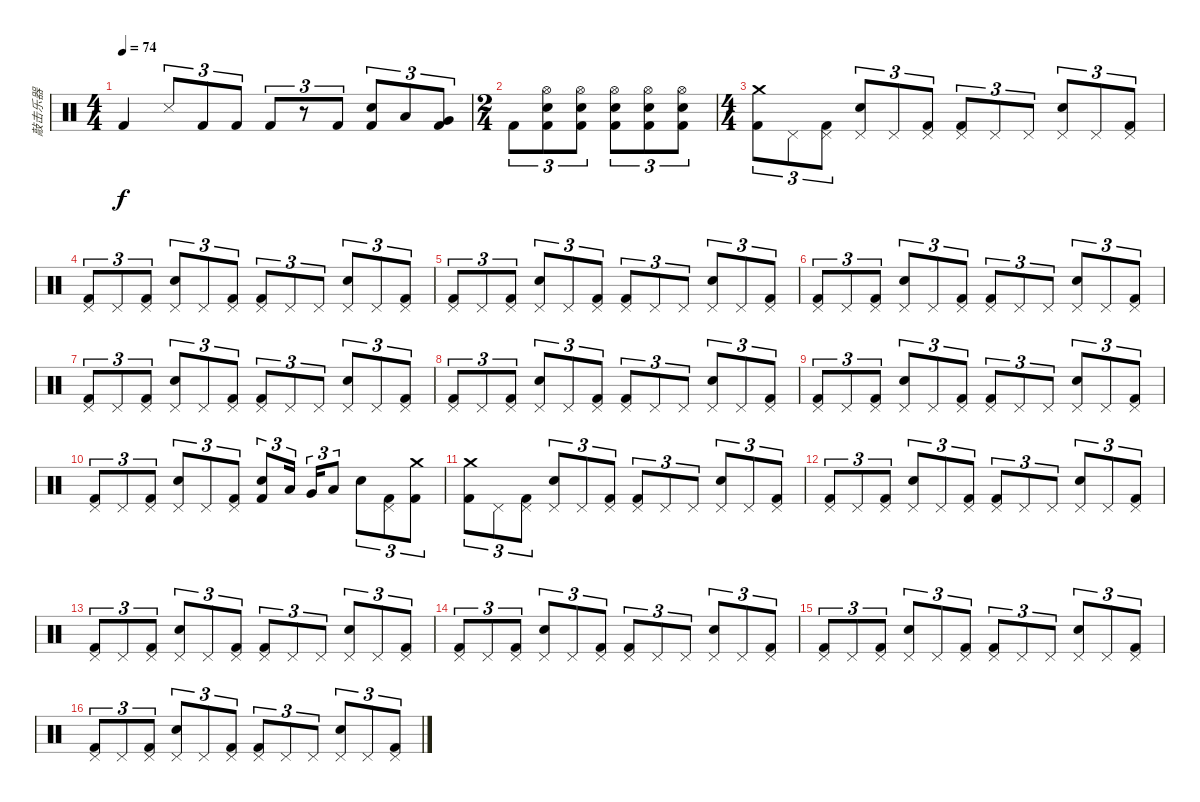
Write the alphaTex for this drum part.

\track ("敲击乐器" "敲击乐器") {instrument percussion}
\staff {score}
\articulation defaults
\ts (4 4)
\tempo 74
\clef neutral
\ks c "Kick (hit) 2".4{dy f} "Snare (side stick) 3".8{tu (3 2)} "Kick (hit) 2".8{tu (3 2)} "Kick (hit) 2".8{tu (3 2)} "Kick (hit) 2".8{tu (3 2)}
r.8{tu (3 2)} "Kick (hit) 2".8{tu (3 2)} ("Electric Snare (hit)" "Kick (hit) 2").8{tu (3 2)} "Low Tom (hit)".8{tu (3 2)} ("Very Low Tom (hit)" "Kick (hit) 2").8{tu (3 2)} |
\ts (2 4)
"Kick (hit) 2".8{tu (3 2)} ("Electric Snare (hit)" "Hi-Hat (open)" "Kick (hit) 2").8{tu (3 2)} ("Electric Snare (hit)" "Hi-Hat (open)" "Kick (hit) 2").8{tu (3 2)} ("Electric Snare (hit)" "Hi-Hat (open)" "Kick (hit) 2").8{tu (3 2)} ("Electric Snare (hit)" "Hi-Hat (open)" "Kick (hit) 2").8{tu (3 2)} ("Electric Snare (hit)" "Hi-Hat (open)" "Kick (hit) 2").8{tu (3 2)} |
\ts (4 4)
("Crash medium (hit)" "Kick (hit) 2").8{tu (3 2)} "Pedal Hi-Hat (hit)".8{tu (3 2)} ("Pedal Hi-Hat (hit)" "Kick (hit) 2").8{tu (3 2)} ("Electric Snare (hit)" "Pedal Hi-Hat (hit)").8{tu (3 2)} "Pedal Hi-Hat (hit)".8{tu (3 2)} ("Pedal Hi-Hat (hit)" "Kick (hit) 2").8{tu (3 2)} ("Pedal Hi-Hat (hit)" "Kick (hit) 2").8{tu (3 2)} "Pedal Hi-Hat (hit)".8{tu (3 2)} "Pedal Hi-Hat (hit)".8{tu (3 2)} ("Electric Snare (hit)" "Pedal Hi-Hat (hit)").8{tu (3 2)} "Pedal Hi-Hat (hit)".8{tu (3 2)} ("Pedal Hi-Hat (hit)" "Kick (hit) 2").8{tu (3 2)} |
("Pedal Hi-Hat (hit)" "Kick (hit) 2").8{tu (3 2)} "Pedal Hi-Hat (hit)".8{tu (3 2)} ("Pedal Hi-Hat (hit)" "Kick (hit) 2").8{tu (3 2)} ("Electric Snare (hit)" "Pedal Hi-Hat (hit)").8{tu (3 2)} "Pedal Hi-Hat (hit)".8{tu (3 2)} ("Pedal Hi-Hat (hit)" "Kick (hit) 2").8{tu (3 2)} ("Pedal Hi-Hat (hit)" "Kick (hit) 2").8{tu (3 2)} "Pedal Hi-Hat (hit)".8{tu (3 2)} "Pedal Hi-Hat (hit)".8{tu (3 2)} ("Electric Snare (hit)" "Pedal Hi-Hat (hit)").8{tu (3 2)} "Pedal Hi-Hat (hit)".8{tu (3 2)} ("Pedal Hi-Hat (hit)" "Kick (hit) 2").8{tu (3 2)} |
("Pedal Hi-Hat (hit)" "Kick (hit) 2").8{tu (3 2)} "Pedal Hi-Hat (hit)".8{tu (3 2)} ("Pedal Hi-Hat (hit)" "Kick (hit) 2").8{tu (3 2)} ("Electric Snare (hit)" "Pedal Hi-Hat (hit)").8{tu (3 2)} "Pedal Hi-Hat (hit)".8{tu (3 2)} ("Pedal Hi-Hat (hit)" "Kick (hit) 2").8{tu (3 2)} ("Pedal Hi-Hat (hit)" "Kick (hit) 2").8{tu (3 2)} "Pedal Hi-Hat (hit)".8{tu (3 2)} "Pedal Hi-Hat (hit)".8{tu (3 2)} ("Electric Snare (hit)" "Pedal Hi-Hat (hit)").8{tu (3 2)} "Pedal Hi-Hat (hit)".8{tu (3 2)} ("Pedal Hi-Hat (hit)" "Kick (hit) 2").8{tu (3 2)} |
("Pedal Hi-Hat (hit)" "Kick (hit) 2").8{tu (3 2)} "Pedal Hi-Hat (hit)".8{tu (3 2)} ("Pedal Hi-Hat (hit)" "Kick (hit) 2").8{tu (3 2)} ("Electric Snare (hit)" "Pedal Hi-Hat (hit)").8{tu (3 2)} "Pedal Hi-Hat (hit)".8{tu (3 2)} ("Pedal Hi-Hat (hit)" "Kick (hit) 2").8{tu (3 2)} ("Pedal Hi-Hat (hit)" "Kick (hit) 2").8{tu (3 2)} "Pedal Hi-Hat (hit)".8{tu (3 2)} "Pedal Hi-Hat (hit)".8{tu (3 2)} ("Electric Snare (hit)" "Pedal Hi-Hat (hit)").8{tu (3 2)} "Pedal Hi-Hat (hit)".8{tu (3 2)} ("Pedal Hi-Hat (hit)" "Kick (hit) 2").8{tu (3 2)} |
("Pedal Hi-Hat (hit)" "Kick (hit) 2").8{tu (3 2)} "Pedal Hi-Hat (hit)".8{tu (3 2)} ("Pedal Hi-Hat (hit)" "Kick (hit) 2").8{tu (3 2)} ("Electric Snare (hit)" "Pedal Hi-Hat (hit)").8{tu (3 2)} "Pedal Hi-Hat (hit)".8{tu (3 2)} ("Pedal Hi-Hat (hit)" "Kick (hit) 2").8{tu (3 2)} ("Pedal Hi-Hat (hit)" "Kick (hit) 2").8{tu (3 2)} "Pedal Hi-Hat (hit)".8{tu (3 2)} "Pedal Hi-Hat (hit)".8{tu (3 2)} ("Electric Snare (hit)" "Pedal Hi-Hat (hit)").8{tu (3 2)} "Pedal Hi-Hat (hit)".8{tu (3 2)} ("Pedal Hi-Hat (hit)" "Kick (hit) 2").8{tu (3 2)} |
("Pedal Hi-Hat (hit)" "Kick (hit) 2").8{tu (3 2)} "Pedal Hi-Hat (hit)".8{tu (3 2)} ("Pedal Hi-Hat (hit)" "Kick (hit) 2").8{tu (3 2)} ("Electric Snare (hit)" "Pedal Hi-Hat (hit)").8{tu (3 2)} "Pedal Hi-Hat (hit)".8{tu (3 2)} ("Pedal Hi-Hat (hit)" "Kick (hit) 2").8{tu (3 2)} ("Pedal Hi-Hat (hit)" "Kick (hit) 2").8{tu (3 2)} "Pedal Hi-Hat (hit)".8{tu (3 2)} "Pedal Hi-Hat (hit)".8{tu (3 2)} ("Electric Snare (hit)" "Pedal Hi-Hat (hit)").8{tu (3 2)} "Pedal Hi-Hat (hit)".8{tu (3 2)} ("Pedal Hi-Hat (hit)" "Kick (hit) 2").8{tu (3 2)} |
("Pedal Hi-Hat (hit)" "Kick (hit) 2").8{tu (3 2)} "Pedal Hi-Hat (hit)".8{tu (3 2)} ("Pedal Hi-Hat (hit)" "Kick (hit) 2").8{tu (3 2)} ("Electric Snare (hit)" "Pedal Hi-Hat (hit)").8{tu (3 2)} "Pedal Hi-Hat (hit)".8{tu (3 2)} ("Pedal Hi-Hat (hit)" "Kick (hit) 2").8{tu (3 2)} ("Pedal Hi-Hat (hit)" "Kick (hit) 2").8{tu (3 2)} "Pedal Hi-Hat (hit)".8{tu (3 2)} "Pedal Hi-Hat (hit)".8{tu (3 2)} ("Electric Snare (hit)" "Pedal Hi-Hat (hit)").8{tu (3 2)} "Pedal Hi-Hat (hit)".8{tu (3 2)} ("Pedal Hi-Hat (hit)" "Kick (hit) 2").8{tu (3 2)} |
("Pedal Hi-Hat (hit)" "Kick (hit) 2").8{tu (3 2)} "Pedal Hi-Hat (hit)".8{tu (3 2)} ("Pedal Hi-Hat (hit)" "Kick (hit) 2").8{tu (3 2)} ("Electric Snare (hit)" "Pedal Hi-Hat (hit)").8{tu (3 2)} "Pedal Hi-Hat (hit)".8{tu (3 2)} ("Pedal Hi-Hat (hit)" "Kick (hit) 2").8{tu (3 2)} ("Electric Snare (hit)" "Kick (hit) 2").8{tu (3 2)} "Low Tom (hit)".16{tu (3 2) beam splitsecondary} "Very Low Tom (hit)".16{tu (3 2)} "Low Floor Tom (hit)".8{tu (3 2)} "Electric Snare (hit)".8{tu (3 2)} ("Pedal Hi-Hat (hit)" "Kick (hit) 2").8{tu (3 2)} ("Crash medium (hit)" "Kick (hit) 2").8{tu (3 2)} |
("Crash medium (hit)" "Kick (hit) 2").8{tu (3 2)} "Pedal Hi-Hat (hit)".8{tu (3 2)} ("Pedal Hi-Hat (hit)" "Kick (hit) 2").8{tu (3 2)} ("Electric Snare (hit)" "Pedal Hi-Hat (hit)").8{tu (3 2)} "Pedal Hi-Hat (hit)".8{tu (3 2)} ("Pedal Hi-Hat (hit)" "Kick (hit) 2").8{tu (3 2)} ("Pedal Hi-Hat (hit)" "Kick (hit) 2").8{tu (3 2)} "Pedal Hi-Hat (hit)".8{tu (3 2)} "Pedal Hi-Hat (hit)".8{tu (3 2)} ("Electric Snare (hit)" "Pedal Hi-Hat (hit)").8{tu (3 2)} "Pedal Hi-Hat (hit)".8{tu (3 2)} ("Pedal Hi-Hat (hit)" "Kick (hit) 2").8{tu (3 2)} |
("Pedal Hi-Hat (hit)" "Kick (hit) 2").8{tu (3 2)} "Pedal Hi-Hat (hit)".8{tu (3 2)} ("Pedal Hi-Hat (hit)" "Kick (hit) 2").8{tu (3 2)} ("Electric Snare (hit)" "Pedal Hi-Hat (hit)").8{tu (3 2)} "Pedal Hi-Hat (hit)".8{tu (3 2)} ("Pedal Hi-Hat (hit)" "Kick (hit) 2").8{tu (3 2)} ("Pedal Hi-Hat (hit)" "Kick (hit) 2").8{tu (3 2)} "Pedal Hi-Hat (hit)".8{tu (3 2)} "Pedal Hi-Hat (hit)".8{tu (3 2)} ("Electric Snare (hit)" "Pedal Hi-Hat (hit)").8{tu (3 2)} "Pedal Hi-Hat (hit)".8{tu (3 2)} ("Pedal Hi-Hat (hit)" "Kick (hit) 2").8{tu (3 2)} |
("Pedal Hi-Hat (hit)" "Kick (hit) 2").8{tu (3 2)} "Pedal Hi-Hat (hit)".8{tu (3 2)} ("Pedal Hi-Hat (hit)" "Kick (hit) 2").8{tu (3 2)} ("Electric Snare (hit)" "Pedal Hi-Hat (hit)").8{tu (3 2)} "Pedal Hi-Hat (hit)".8{tu (3 2)} ("Pedal Hi-Hat (hit)" "Kick (hit) 2").8{tu (3 2)} ("Pedal Hi-Hat (hit)" "Kick (hit) 2").8{tu (3 2)} "Pedal Hi-Hat (hit)".8{tu (3 2)} "Pedal Hi-Hat (hit)".8{tu (3 2)} ("Electric Snare (hit)" "Pedal Hi-Hat (hit)").8{tu (3 2)} "Pedal Hi-Hat (hit)".8{tu (3 2)} ("Pedal Hi-Hat (hit)" "Kick (hit) 2").8{tu (3 2)} |
("Pedal Hi-Hat (hit)" "Kick (hit) 2").8{tu (3 2)} "Pedal Hi-Hat (hit)".8{tu (3 2)} ("Pedal Hi-Hat (hit)" "Kick (hit) 2").8{tu (3 2)} ("Electric Snare (hit)" "Pedal Hi-Hat (hit)").8{tu (3 2)} "Pedal Hi-Hat (hit)".8{tu (3 2)} ("Pedal Hi-Hat (hit)" "Kick (hit) 2").8{tu (3 2)} ("Pedal Hi-Hat (hit)" "Kick (hit) 2").8{tu (3 2)} "Pedal Hi-Hat (hit)".8{tu (3 2)} "Pedal Hi-Hat (hit)".8{tu (3 2)} ("Electric Snare (hit)" "Pedal Hi-Hat (hit)").8{tu (3 2)} "Pedal Hi-Hat (hit)".8{tu (3 2)} ("Pedal Hi-Hat (hit)" "Kick (hit) 2").8{tu (3 2)} |
("Pedal Hi-Hat (hit)" "Kick (hit) 2").8{tu (3 2)} "Pedal Hi-Hat (hit)".8{tu (3 2)} ("Pedal Hi-Hat (hit)" "Kick (hit) 2").8{tu (3 2)} ("Electric Snare (hit)" "Pedal Hi-Hat (hit)").8{tu (3 2)} "Pedal Hi-Hat (hit)".8{tu (3 2)} ("Pedal Hi-Hat (hit)" "Kick (hit) 2").8{tu (3 2)} ("Pedal Hi-Hat (hit)" "Kick (hit) 2").8{tu (3 2)} "Pedal Hi-Hat (hit)".8{tu (3 2)} "Pedal Hi-Hat (hit)".8{tu (3 2)} ("Electric Snare (hit)" "Pedal Hi-Hat (hit)").8{tu (3 2)} "Pedal Hi-Hat (hit)".8{tu (3 2)} ("Pedal Hi-Hat (hit)" "Kick (hit) 2").8{tu (3 2)} |
("Pedal Hi-Hat (hit)" "Kick (hit) 2").8{tu (3 2)} "Pedal Hi-Hat (hit)".8{tu (3 2)} ("Pedal Hi-Hat (hit)" "Kick (hit) 2").8{tu (3 2)} ("Electric Snare (hit)" "Pedal Hi-Hat (hit)").8{tu (3 2)} "Pedal Hi-Hat (hit)".8{tu (3 2)} ("Pedal Hi-Hat (hit)" "Kick (hit) 2").8{tu (3 2)} ("Pedal Hi-Hat (hit)" "Kick (hit) 2").8{tu (3 2)} "Pedal Hi-Hat (hit)".8{tu (3 2)} "Pedal Hi-Hat (hit)".8{tu (3 2)} ("Electric Snare (hit)" "Pedal Hi-Hat (hit)").8{tu (3 2)} "Pedal Hi-Hat (hit)".8{tu (3 2)} ("Pedal Hi-Hat (hit)" "Kick (hit) 2").8{tu (3 2)}
